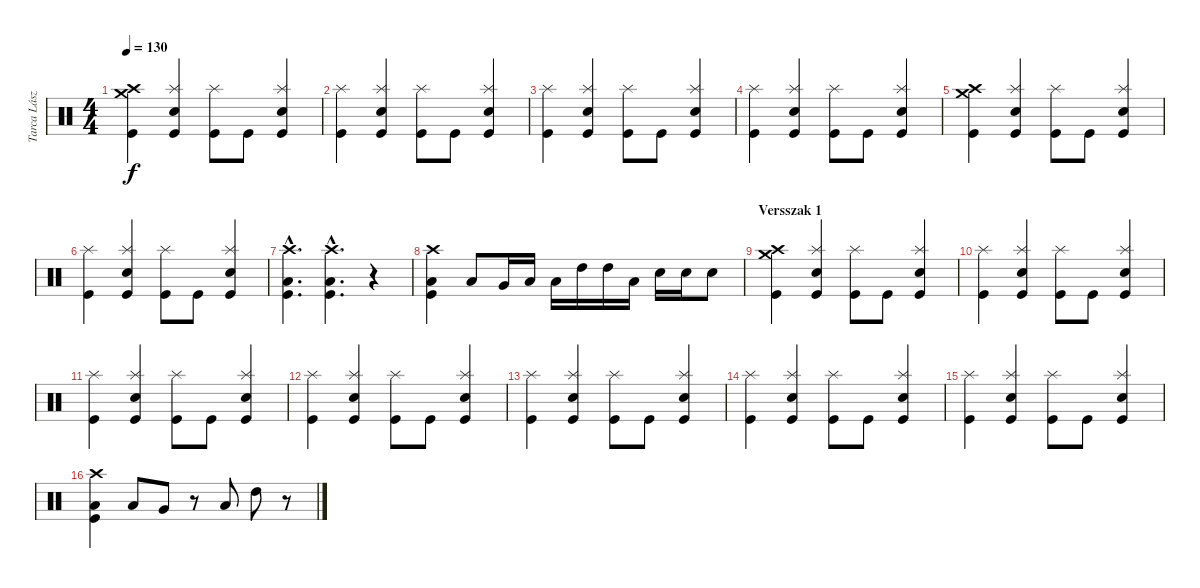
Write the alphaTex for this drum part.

\track ("Tarca László" "Tarca Lász") {instrument percussion}
\staff {score}
\articulation defaults
\ts (4 4)
\tempo 130
\clef neutral
\ks c
("Crash high (hit)" "Crash medium (hit)" "Kick (hit)").4{dy f} ("Splash (hit)" "Snare (hit) 2" "Kick (hit)").4 ("Splash (hit)" "Kick (hit)").8 "Kick (hit)".8 ("Splash (hit)" "Snare (hit) 2" "Kick (hit)").4 |
("Splash (hit)" "Kick (hit)").4 ("Splash (hit)" "Snare (hit) 2" "Kick (hit)").4 ("Splash (hit)" "Kick (hit)").8 "Kick (hit)".8 ("Splash (hit)" "Snare (hit) 2" "Kick (hit)").4 |
("Splash (hit)" "Kick (hit)").4 ("Splash (hit)" "Snare (hit) 2" "Kick (hit)").4 ("Splash (hit)" "Kick (hit)").8 "Kick (hit)".8 ("Splash (hit)" "Snare (hit) 2" "Kick (hit)").4 |
("Splash (hit)" "Kick (hit)").4 ("Splash (hit)" "Snare (hit) 2" "Kick (hit)").4 ("Splash (hit)" "Kick (hit)").8 "Kick (hit)".8 ("Splash (hit)" "Snare (hit) 2" "Kick (hit)").4 |
("Crash high (hit)" "Crash medium (hit)" "Kick (hit)").4 ("Splash (hit)" "Snare (hit) 2" "Kick (hit)").4 ("Splash (hit)" "Kick (hit)").8 "Kick (hit)".8 ("Splash (hit)" "Snare (hit) 2" "Kick (hit)").4 |
("Splash (hit)" "Kick (hit)").4 ("Splash (hit)" "Snare (hit) 2" "Kick (hit)").4 ("Splash (hit)" "Kick (hit)").8 "Kick (hit)".8 ("Splash (hit)" "Snare (hit) 2" "Kick (hit)").4 |
("Crash high (hit)"{hac} "Low Tom (hit)"{hac} "Kick (hit)"{hac}).4{d} ("Crash high (hit)"{hac} "Low Tom (hit)"{hac} "Kick (hit)"{hac}).4{d} r.4 |
("Crash high (hit)" "Low Tom (hit)" "Kick (hit)").4 "Low Floor Tom (hit)".8 "Very Low Tom (hit)".16 "Low Tom (hit)".16 "Low Tom (hit)".16 "High Tom (hit)".16 "High Tom (hit)".16 "Low Tom (hit)".16 "Snare (hit) 2".16 "Snare (hit) 2".16 "Snare (hit) 2".8 |
\section ("" "Versszak 1")
("Crash high (hit)" "Crash medium (hit)" "Kick (hit)").4 ("Splash (hit)" "Snare (hit) 2" "Kick (hit)").4 ("Splash (hit)" "Kick (hit)").8 "Kick (hit)".8 ("Splash (hit)" "Snare (hit) 2" "Kick (hit)").4 |
("Splash (hit)" "Kick (hit)").4 ("Splash (hit)" "Snare (hit) 2" "Kick (hit)").4 ("Splash (hit)" "Kick (hit)").8 "Kick (hit)".8 ("Splash (hit)" "Snare (hit) 2" "Kick (hit)").4 |
("Splash (hit)" "Kick (hit)").4 ("Splash (hit)" "Snare (hit) 2" "Kick (hit)").4 ("Splash (hit)" "Kick (hit)").8 "Kick (hit)".8 ("Splash (hit)" "Snare (hit) 2" "Kick (hit)").4 |
("Splash (hit)" "Kick (hit)").4 ("Splash (hit)" "Snare (hit) 2" "Kick (hit)").4 ("Splash (hit)" "Kick (hit)").8 "Kick (hit)".8 ("Splash (hit)" "Snare (hit) 2" "Kick (hit)").4 |
("Splash (hit)" "Kick (hit)").4 ("Splash (hit)" "Snare (hit) 2" "Kick (hit)").4 ("Splash (hit)" "Kick (hit)").8 "Kick (hit)".8 ("Splash (hit)" "Snare (hit) 2" "Kick (hit)").4 |
("Splash (hit)" "Kick (hit)").4 ("Splash (hit)" "Snare (hit) 2" "Kick (hit)").4 ("Splash (hit)" "Kick (hit)").8 "Kick (hit)".8 ("Splash (hit)" "Snare (hit) 2" "Kick (hit)").4 |
("Splash (hit)" "Kick (hit)").4 ("Splash (hit)" "Snare (hit) 2" "Kick (hit)").4 ("Splash (hit)" "Kick (hit)").8 "Kick (hit)".8 ("Splash (hit)" "Snare (hit) 2" "Kick (hit)").4 |
("Crash high (hit)" "Low Tom (hit)" "Kick (hit)").4 "Low Floor Tom (hit)".8 "Very Low Tom (hit)".8 r.8 "Low Tom (hit)".8 "High Tom (hit)".8 r.8
